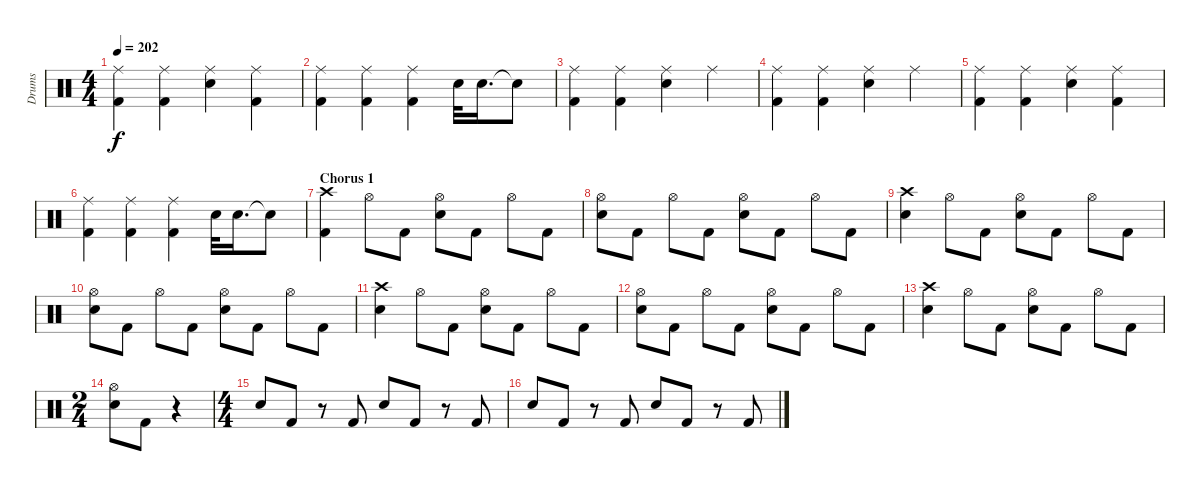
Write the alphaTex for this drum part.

\track ("Drums" "Drums") {instrument percussion}
\staff {score}
\articulation defaults
\ts (4 4)
\tempo 202
\clef neutral
\ks c
("Ride (middle)" "Kick (hit) 2").4{dy f} ("Ride (middle)" "Kick (hit) 2").4 ("Ride (middle)" "Electric Snare (hit)").4 ("Ride (middle)" "Kick (hit) 2").4 |
("Ride (middle)" "Kick (hit) 2").4 ("Ride (middle)" "Kick (hit) 2").4 ("Ride (middle)" "Kick (hit) 2").4 "Electric Snare (hit)".32 "Electric Snare (hit)".16{d} "Electric Snare (hit)"{t}.8 |
("Ride (middle)" "Kick (hit) 2").4 ("Ride (middle)" "Kick (hit) 2").4 ("Ride (middle)" "Electric Snare (hit)").4 "Ride (middle)".4 |
("Ride (middle)" "Kick (hit) 2").4 ("Ride (middle)" "Kick (hit) 2").4 ("Ride (middle)" "Electric Snare (hit)").4 "Ride (middle)".4 |
("Ride (middle)" "Kick (hit) 2").4 ("Ride (middle)" "Kick (hit) 2").4 ("Ride (middle)" "Electric Snare (hit)").4 ("Ride (middle)" "Kick (hit) 2").4 |
("Ride (middle)" "Kick (hit) 2").4 ("Ride (middle)" "Kick (hit) 2").4 ("Ride (middle)" "Kick (hit) 2").4 "Electric Snare (hit)".32 "Electric Snare (hit)".16{d} "Electric Snare (hit)"{t}.8 |
\section ("" "Chorus 1")
("Crash high (hit)" "Kick (hit) 2").4 "Hi-Hat (open)".8 "Kick (hit) 2".8 ("Hi-Hat (open)" "Electric Snare (hit)").8 "Kick (hit) 2".8 "Hi-Hat (open)".8 "Kick (hit) 2".8 |
("Hi-Hat (open)" "Electric Snare (hit)").8 "Kick (hit) 2".8 "Hi-Hat (open)".8 "Kick (hit) 2".8 ("Hi-Hat (open)" "Electric Snare (hit)").8 "Kick (hit) 2".8 "Hi-Hat (open)".8 "Kick (hit) 2".8 |
("Crash high (hit)" "Electric Snare (hit)").4 "Hi-Hat (open)".8 "Kick (hit) 2".8 ("Hi-Hat (open)" "Electric Snare (hit)").8 "Kick (hit) 2".8 "Hi-Hat (open)".8 "Kick (hit) 2".8 |
("Hi-Hat (open)" "Electric Snare (hit)").8 "Kick (hit) 2".8 "Hi-Hat (open)".8 "Kick (hit) 2".8 ("Hi-Hat (open)" "Electric Snare (hit)").8 "Kick (hit) 2".8 "Hi-Hat (open)".8 "Kick (hit) 2".8 |
("Crash high (hit)" "Electric Snare (hit)").4 "Hi-Hat (open)".8 "Kick (hit) 2".8 ("Hi-Hat (open)" "Electric Snare (hit)").8 "Kick (hit) 2".8 "Hi-Hat (open)".8 "Kick (hit) 2".8 |
("Hi-Hat (open)" "Electric Snare (hit)").8 "Kick (hit) 2".8 "Hi-Hat (open)".8 "Kick (hit) 2".8 ("Hi-Hat (open)" "Electric Snare (hit)").8 "Kick (hit) 2".8 "Hi-Hat (open)".8 "Kick (hit) 2".8 |
("Crash high (hit)" "Electric Snare (hit)").4 "Hi-Hat (open)".8 "Kick (hit) 2".8 ("Hi-Hat (open)" "Electric Snare (hit)").8 "Kick (hit) 2".8 "Hi-Hat (open)".8 "Kick (hit) 2".8 |
\ts (2 4)
("Hi-Hat (open)" "Electric Snare (hit)").8 "Kick (hit) 2".8 r.4 |
\ts (4 4)
"Electric Snare (hit)".8 "Kick (hit) 2".8 r.8 "Kick (hit) 2".8 "Electric Snare (hit)".8 "Kick (hit) 2".8 r.8 "Kick (hit) 2".8 |
"Electric Snare (hit)".8 "Kick (hit) 2".8 r.8 "Kick (hit) 2".8 "Electric Snare (hit)".8 "Kick (hit) 2".8 r.8 "Kick (hit) 2".8
